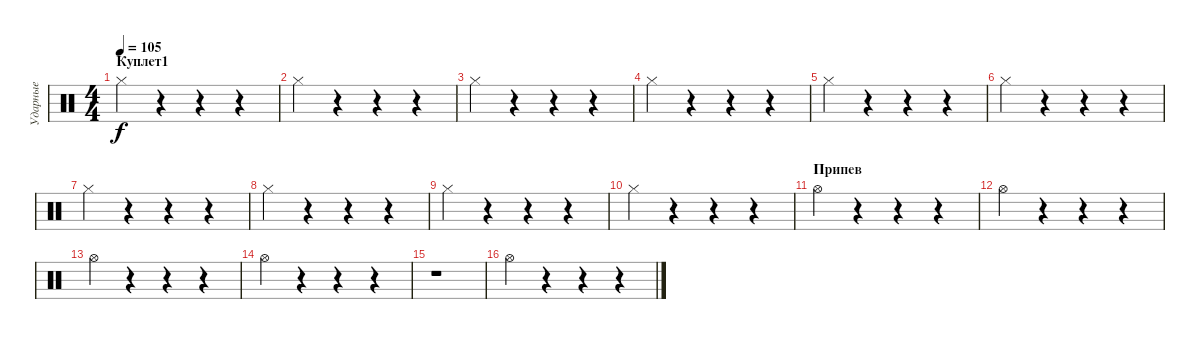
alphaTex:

\track ("Ударные" "Ударные") {instrument percussion}
\staff {score}
\articulation defaults
\ts (4 4)
\section ("" "Куплет1")
\tempo 105
\clef neutral
\ks c "Hi-Hat (closed)".4{dy f}
r.4 r.4 r.4 |
"Hi-Hat (closed)".4 r.4 r.4 r.4 |
"Hi-Hat (closed)".4 r.4 r.4 r.4 |
"Hi-Hat (closed)".4 r.4 r.4 r.4 |
"Hi-Hat (closed)".4 r.4 r.4 r.4 |
"Hi-Hat (closed)".4 r.4 r.4 r.4 |
"Hi-Hat (closed)".4 r.4 r.4 r.4 |
"Hi-Hat (closed)".4 r.4 r.4 r.4 |
"Hi-Hat (closed)".4 r.4 r.4 r.4 |
"Hi-Hat (closed)".4 r.4 r.4 r.4 |
\section ("" "Припев")
"Hi-Hat (open)".4 r.4 r.4 r.4 |
"Hi-Hat (open)".4 r.4 r.4 r.4 |
"Hi-Hat (open)".4 r.4 r.4 r.4 |
"Hi-Hat (open)".4 r.4 r.4 r.4 |
r.1 |
"Hi-Hat (open)".4 r.4 r.4 r.4
